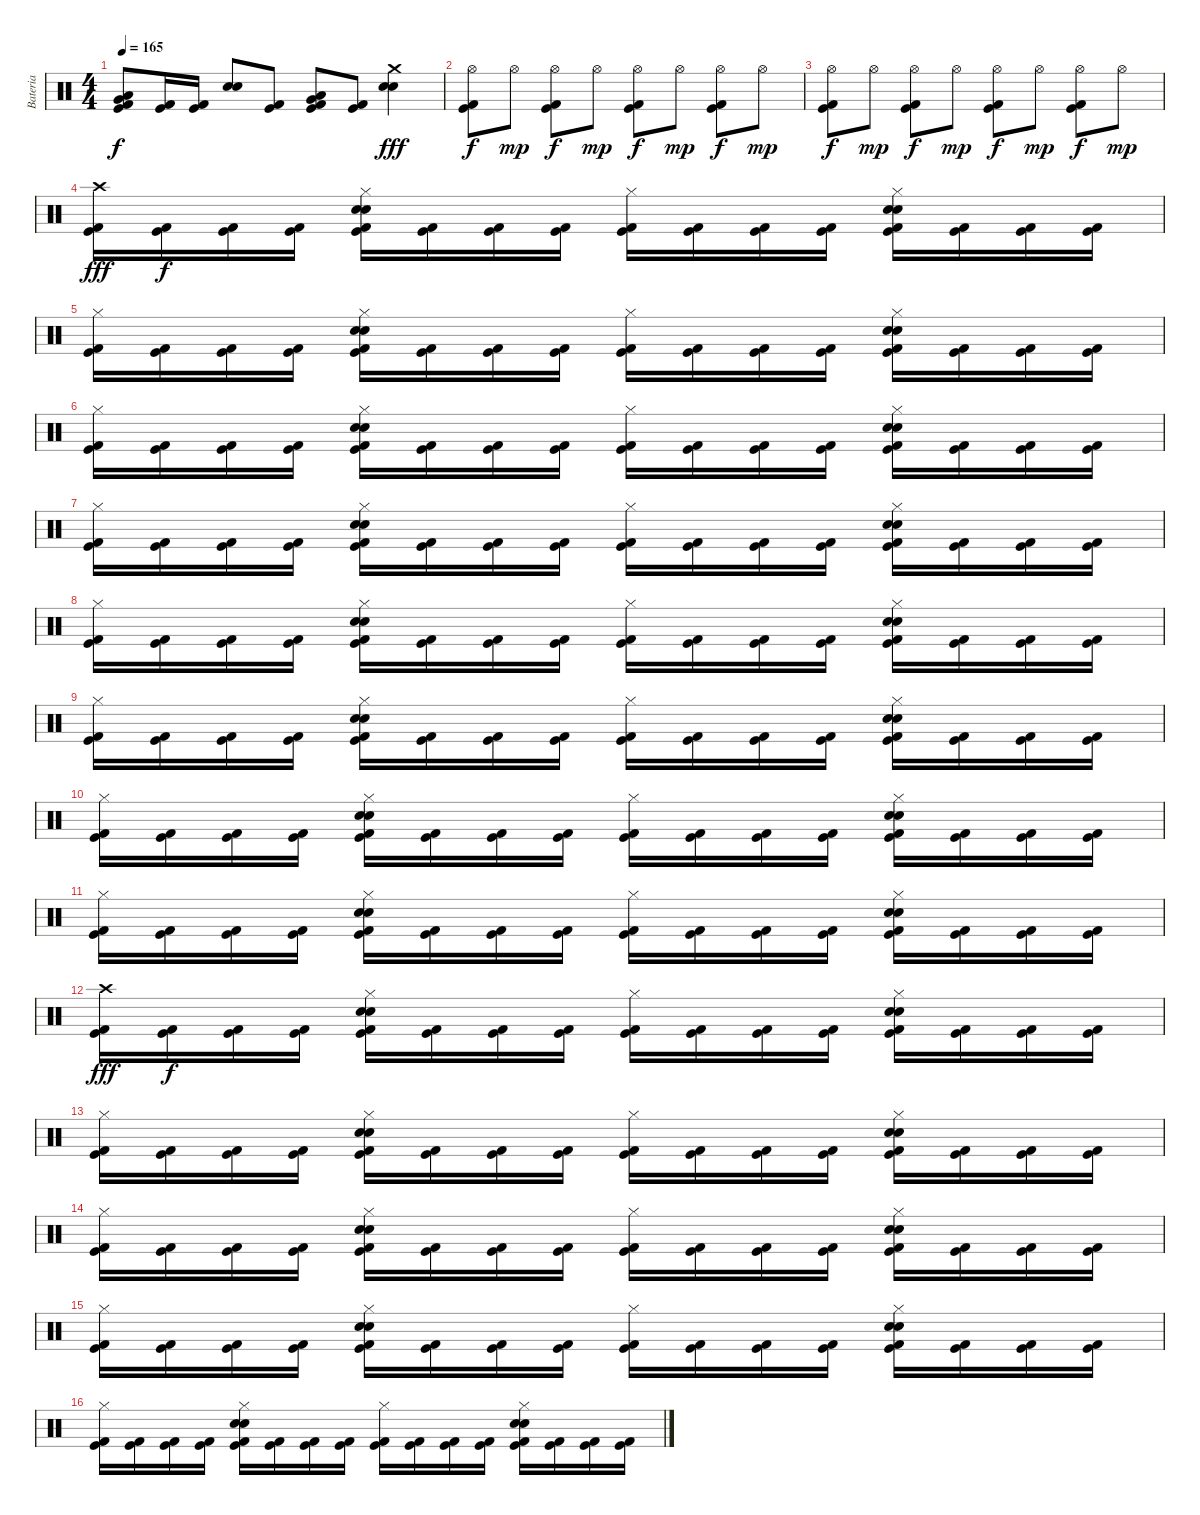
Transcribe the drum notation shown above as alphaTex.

\track ("Bateria" "Bateria") {instrument percussion}
\staff {score}
\articulation defaults
\ts (4 4)
\tempo 165
\clef neutral
\ks c
("Low Tom (hit)" "Very Low Tom (hit)" "Kick (hit) 2" "Kick (hit)").8{dy f} ("Kick (hit) 2" "Kick (hit)").16 ("Kick (hit) 2" "Kick (hit)").16 ("Electric Snare (hit)" "Snare (hit) 2").8 ("Kick (hit) 2" "Kick (hit)").8 ("Low Tom (hit)" "Very Low Tom (hit)" "Kick (hit) 2" "Kick (hit)").8 ("Kick (hit) 2" "Kick (hit)").8 ("Crash medium (hit)" "Electric Snare (hit)" "Snare (hit) 2").4{dy fff} |
("Hi-Hat (open)" "Kick (hit) 2" "Kick (hit)").8{dy f} "Hi-Hat (open)".8{dy mp} ("Hi-Hat (open)" "Kick (hit) 2" "Kick (hit)").8{dy f} "Hi-Hat (open)".8{dy mp} ("Hi-Hat (open)" "Kick (hit) 2" "Kick (hit)").8{dy f} "Hi-Hat (open)".8{dy mp} ("Hi-Hat (open)" "Kick (hit) 2" "Kick (hit)").8{dy f} "Hi-Hat (open)".8{dy mp} |
("Hi-Hat (open)" "Kick (hit) 2" "Kick (hit)").8{dy f} "Hi-Hat (open)".8{dy mp} ("Hi-Hat (open)" "Kick (hit) 2" "Kick (hit)").8{dy f} "Hi-Hat (open)".8{dy mp} ("Hi-Hat (open)" "Kick (hit) 2" "Kick (hit)").8{dy f} "Hi-Hat (open)".8{dy mp} ("Hi-Hat (open)" "Kick (hit) 2" "Kick (hit)").8{dy f} "Hi-Hat (open)".8{dy mp} |
("Crash high (hit)" "Kick (hit) 2" "Kick (hit)").16{dy fff} ("Kick (hit) 2" "Kick (hit)").16{dy f} ("Kick (hit) 2" "Kick (hit)").16 ("Kick (hit) 2" "Kick (hit)").16 ("Hi-Hat (closed)" "Electric Snare (hit)" "Snare (hit) 2" "Kick (hit) 2" "Kick (hit)").16 ("Kick (hit) 2" "Kick (hit)").16 ("Kick (hit) 2" "Kick (hit)").16 ("Kick (hit) 2" "Kick (hit)").16 ("Hi-Hat (closed)" "Kick (hit) 2" "Kick (hit)").16 ("Kick (hit) 2" "Kick (hit)").16 ("Kick (hit) 2" "Kick (hit)").16 ("Kick (hit) 2" "Kick (hit)").16 ("Hi-Hat (closed)" "Electric Snare (hit)" "Snare (hit) 2" "Kick (hit) 2" "Kick (hit)").16 ("Kick (hit) 2" "Kick (hit)").16 ("Kick (hit) 2" "Kick (hit)").16 ("Kick (hit) 2" "Kick (hit)").16 |
("Hi-Hat (closed)" "Kick (hit) 2" "Kick (hit)").16 ("Kick (hit) 2" "Kick (hit)").16 ("Kick (hit) 2" "Kick (hit)").16 ("Kick (hit) 2" "Kick (hit)").16 ("Hi-Hat (closed)" "Electric Snare (hit)" "Snare (hit) 2" "Kick (hit) 2" "Kick (hit)").16 ("Kick (hit) 2" "Kick (hit)").16 ("Kick (hit) 2" "Kick (hit)").16 ("Kick (hit) 2" "Kick (hit)").16 ("Hi-Hat (closed)" "Kick (hit) 2" "Kick (hit)").16 ("Kick (hit) 2" "Kick (hit)").16 ("Kick (hit) 2" "Kick (hit)").16 ("Kick (hit) 2" "Kick (hit)").16 ("Hi-Hat (closed)" "Electric Snare (hit)" "Snare (hit) 2" "Kick (hit) 2" "Kick (hit)").16 ("Kick (hit) 2" "Kick (hit)").16 ("Kick (hit) 2" "Kick (hit)").16 ("Kick (hit) 2" "Kick (hit)").16 |
("Hi-Hat (closed)" "Kick (hit) 2" "Kick (hit)").16 ("Kick (hit) 2" "Kick (hit)").16 ("Kick (hit) 2" "Kick (hit)").16 ("Kick (hit) 2" "Kick (hit)").16 ("Hi-Hat (closed)" "Electric Snare (hit)" "Snare (hit) 2" "Kick (hit) 2" "Kick (hit)").16 ("Kick (hit) 2" "Kick (hit)").16 ("Kick (hit) 2" "Kick (hit)").16 ("Kick (hit) 2" "Kick (hit)").16 ("Hi-Hat (closed)" "Kick (hit) 2" "Kick (hit)").16 ("Kick (hit) 2" "Kick (hit)").16 ("Kick (hit) 2" "Kick (hit)").16 ("Kick (hit) 2" "Kick (hit)").16 ("Hi-Hat (closed)" "Electric Snare (hit)" "Snare (hit) 2" "Kick (hit) 2" "Kick (hit)").16 ("Kick (hit) 2" "Kick (hit)").16 ("Kick (hit) 2" "Kick (hit)").16 ("Kick (hit) 2" "Kick (hit)").16 |
("Hi-Hat (closed)" "Kick (hit) 2" "Kick (hit)").16 ("Kick (hit) 2" "Kick (hit)").16 ("Kick (hit) 2" "Kick (hit)").16 ("Kick (hit) 2" "Kick (hit)").16 ("Hi-Hat (closed)" "Electric Snare (hit)" "Snare (hit) 2" "Kick (hit) 2" "Kick (hit)").16 ("Kick (hit) 2" "Kick (hit)").16 ("Kick (hit) 2" "Kick (hit)").16 ("Kick (hit) 2" "Kick (hit)").16 ("Hi-Hat (closed)" "Kick (hit) 2" "Kick (hit)").16 ("Kick (hit) 2" "Kick (hit)").16 ("Kick (hit) 2" "Kick (hit)").16 ("Kick (hit) 2" "Kick (hit)").16 ("Hi-Hat (closed)" "Electric Snare (hit)" "Snare (hit) 2" "Kick (hit) 2" "Kick (hit)").16 ("Kick (hit) 2" "Kick (hit)").16 ("Kick (hit) 2" "Kick (hit)").16 ("Kick (hit) 2" "Kick (hit)").16 |
("Hi-Hat (closed)" "Kick (hit) 2" "Kick (hit)").16 ("Kick (hit) 2" "Kick (hit)").16 ("Kick (hit) 2" "Kick (hit)").16 ("Kick (hit) 2" "Kick (hit)").16 ("Hi-Hat (closed)" "Electric Snare (hit)" "Snare (hit) 2" "Kick (hit) 2" "Kick (hit)").16 ("Kick (hit) 2" "Kick (hit)").16 ("Kick (hit) 2" "Kick (hit)").16 ("Kick (hit) 2" "Kick (hit)").16 ("Hi-Hat (closed)" "Kick (hit) 2" "Kick (hit)").16 ("Kick (hit) 2" "Kick (hit)").16 ("Kick (hit) 2" "Kick (hit)").16 ("Kick (hit) 2" "Kick (hit)").16 ("Hi-Hat (closed)" "Electric Snare (hit)" "Snare (hit) 2" "Kick (hit) 2" "Kick (hit)").16 ("Kick (hit) 2" "Kick (hit)").16 ("Kick (hit) 2" "Kick (hit)").16 ("Kick (hit) 2" "Kick (hit)").16 |
("Hi-Hat (closed)" "Kick (hit) 2" "Kick (hit)").16 ("Kick (hit) 2" "Kick (hit)").16 ("Kick (hit) 2" "Kick (hit)").16 ("Kick (hit) 2" "Kick (hit)").16 ("Hi-Hat (closed)" "Electric Snare (hit)" "Snare (hit) 2" "Kick (hit) 2" "Kick (hit)").16 ("Kick (hit) 2" "Kick (hit)").16 ("Kick (hit) 2" "Kick (hit)").16 ("Kick (hit) 2" "Kick (hit)").16 ("Hi-Hat (closed)" "Kick (hit) 2" "Kick (hit)").16 ("Kick (hit) 2" "Kick (hit)").16 ("Kick (hit) 2" "Kick (hit)").16 ("Kick (hit) 2" "Kick (hit)").16 ("Hi-Hat (closed)" "Electric Snare (hit)" "Snare (hit) 2" "Kick (hit) 2" "Kick (hit)").16 ("Kick (hit) 2" "Kick (hit)").16 ("Kick (hit) 2" "Kick (hit)").16 ("Kick (hit) 2" "Kick (hit)").16 |
("Hi-Hat (closed)" "Kick (hit) 2" "Kick (hit)").16 ("Kick (hit) 2" "Kick (hit)").16 ("Kick (hit) 2" "Kick (hit)").16 ("Kick (hit) 2" "Kick (hit)").16 ("Hi-Hat (closed)" "Electric Snare (hit)" "Snare (hit) 2" "Kick (hit) 2" "Kick (hit)").16 ("Kick (hit) 2" "Kick (hit)").16 ("Kick (hit) 2" "Kick (hit)").16 ("Kick (hit) 2" "Kick (hit)").16 ("Hi-Hat (closed)" "Kick (hit) 2" "Kick (hit)").16 ("Kick (hit) 2" "Kick (hit)").16 ("Kick (hit) 2" "Kick (hit)").16 ("Kick (hit) 2" "Kick (hit)").16 ("Hi-Hat (closed)" "Electric Snare (hit)" "Snare (hit) 2" "Kick (hit) 2" "Kick (hit)").16 ("Kick (hit) 2" "Kick (hit)").16 ("Kick (hit) 2" "Kick (hit)").16 ("Kick (hit) 2" "Kick (hit)").16 |
("Hi-Hat (closed)" "Kick (hit) 2" "Kick (hit)").16 ("Kick (hit) 2" "Kick (hit)").16 ("Kick (hit) 2" "Kick (hit)").16 ("Kick (hit) 2" "Kick (hit)").16 ("Hi-Hat (closed)" "Electric Snare (hit)" "Snare (hit) 2" "Kick (hit) 2" "Kick (hit)").16 ("Kick (hit) 2" "Kick (hit)").16 ("Kick (hit) 2" "Kick (hit)").16 ("Kick (hit) 2" "Kick (hit)").16 ("Hi-Hat (closed)" "Kick (hit) 2" "Kick (hit)").16 ("Kick (hit) 2" "Kick (hit)").16 ("Kick (hit) 2" "Kick (hit)").16 ("Kick (hit) 2" "Kick (hit)").16 ("Hi-Hat (closed)" "Electric Snare (hit)" "Snare (hit) 2" "Kick (hit) 2" "Kick (hit)").16 ("Kick (hit) 2" "Kick (hit)").16 ("Kick (hit) 2" "Kick (hit)").16 ("Kick (hit) 2" "Kick (hit)").16 |
("Crash high (hit)" "Kick (hit) 2" "Kick (hit)").16{dy fff} ("Kick (hit) 2" "Kick (hit)").16{dy f} ("Kick (hit) 2" "Kick (hit)").16 ("Kick (hit) 2" "Kick (hit)").16 ("Hi-Hat (closed)" "Electric Snare (hit)" "Snare (hit) 2" "Kick (hit) 2" "Kick (hit)").16 ("Kick (hit) 2" "Kick (hit)").16 ("Kick (hit) 2" "Kick (hit)").16 ("Kick (hit) 2" "Kick (hit)").16 ("Hi-Hat (closed)" "Kick (hit) 2" "Kick (hit)").16 ("Kick (hit) 2" "Kick (hit)").16 ("Kick (hit) 2" "Kick (hit)").16 ("Kick (hit) 2" "Kick (hit)").16 ("Hi-Hat (closed)" "Electric Snare (hit)" "Snare (hit) 2" "Kick (hit) 2" "Kick (hit)").16 ("Kick (hit) 2" "Kick (hit)").16 ("Kick (hit) 2" "Kick (hit)").16 ("Kick (hit) 2" "Kick (hit)").16 |
("Hi-Hat (closed)" "Kick (hit) 2" "Kick (hit)").16 ("Kick (hit) 2" "Kick (hit)").16 ("Kick (hit) 2" "Kick (hit)").16 ("Kick (hit) 2" "Kick (hit)").16 ("Hi-Hat (closed)" "Electric Snare (hit)" "Snare (hit) 2" "Kick (hit) 2" "Kick (hit)").16 ("Kick (hit) 2" "Kick (hit)").16 ("Kick (hit) 2" "Kick (hit)").16 ("Kick (hit) 2" "Kick (hit)").16 ("Hi-Hat (closed)" "Kick (hit) 2" "Kick (hit)").16 ("Kick (hit) 2" "Kick (hit)").16 ("Kick (hit) 2" "Kick (hit)").16 ("Kick (hit) 2" "Kick (hit)").16 ("Hi-Hat (closed)" "Electric Snare (hit)" "Snare (hit) 2" "Kick (hit) 2" "Kick (hit)").16 ("Kick (hit) 2" "Kick (hit)").16 ("Kick (hit) 2" "Kick (hit)").16 ("Kick (hit) 2" "Kick (hit)").16 |
("Hi-Hat (closed)" "Kick (hit) 2" "Kick (hit)").16 ("Kick (hit) 2" "Kick (hit)").16 ("Kick (hit) 2" "Kick (hit)").16 ("Kick (hit) 2" "Kick (hit)").16 ("Hi-Hat (closed)" "Electric Snare (hit)" "Snare (hit) 2" "Kick (hit) 2" "Kick (hit)").16 ("Kick (hit) 2" "Kick (hit)").16 ("Kick (hit) 2" "Kick (hit)").16 ("Kick (hit) 2" "Kick (hit)").16 ("Hi-Hat (closed)" "Kick (hit) 2" "Kick (hit)").16 ("Kick (hit) 2" "Kick (hit)").16 ("Kick (hit) 2" "Kick (hit)").16 ("Kick (hit) 2" "Kick (hit)").16 ("Hi-Hat (closed)" "Electric Snare (hit)" "Snare (hit) 2" "Kick (hit) 2" "Kick (hit)").16 ("Kick (hit) 2" "Kick (hit)").16 ("Kick (hit) 2" "Kick (hit)").16 ("Kick (hit) 2" "Kick (hit)").16 |
("Hi-Hat (closed)" "Kick (hit) 2" "Kick (hit)").16 ("Kick (hit) 2" "Kick (hit)").16 ("Kick (hit) 2" "Kick (hit)").16 ("Kick (hit) 2" "Kick (hit)").16 ("Hi-Hat (closed)" "Electric Snare (hit)" "Snare (hit) 2" "Kick (hit) 2" "Kick (hit)").16 ("Kick (hit) 2" "Kick (hit)").16 ("Kick (hit) 2" "Kick (hit)").16 ("Kick (hit) 2" "Kick (hit)").16 ("Hi-Hat (closed)" "Kick (hit) 2" "Kick (hit)").16 ("Kick (hit) 2" "Kick (hit)").16 ("Kick (hit) 2" "Kick (hit)").16 ("Kick (hit) 2" "Kick (hit)").16 ("Hi-Hat (closed)" "Electric Snare (hit)" "Snare (hit) 2" "Kick (hit) 2" "Kick (hit)").16 ("Kick (hit) 2" "Kick (hit)").16 ("Kick (hit) 2" "Kick (hit)").16 ("Kick (hit) 2" "Kick (hit)").16 |
("Hi-Hat (closed)" "Kick (hit) 2" "Kick (hit)").16 ("Kick (hit) 2" "Kick (hit)").16 ("Kick (hit) 2" "Kick (hit)").16 ("Kick (hit) 2" "Kick (hit)").16 ("Hi-Hat (closed)" "Electric Snare (hit)" "Snare (hit) 2" "Kick (hit) 2" "Kick (hit)").16 ("Kick (hit) 2" "Kick (hit)").16 ("Kick (hit) 2" "Kick (hit)").16 ("Kick (hit) 2" "Kick (hit)").16 ("Hi-Hat (closed)" "Kick (hit) 2" "Kick (hit)").16 ("Kick (hit) 2" "Kick (hit)").16 ("Kick (hit) 2" "Kick (hit)").16 ("Kick (hit) 2" "Kick (hit)").16 ("Hi-Hat (closed)" "Electric Snare (hit)" "Snare (hit) 2" "Kick (hit) 2" "Kick (hit)").16 ("Kick (hit) 2" "Kick (hit)").16 ("Kick (hit) 2" "Kick (hit)").16 ("Kick (hit) 2" "Kick (hit)").16
